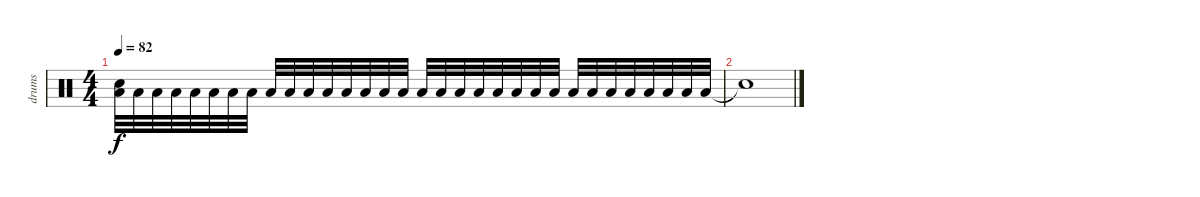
\track ("drums" "drums") {instrument percussion}
\staff {score}
\articulation defaults
\ts (4 4)
\tempo 82
\clef neutral
\ks c
("Snare (hit)"{t} "Low Tom (hit)").32{dy f volume 2} "Low Tom (hit)".32 "Low Tom (hit)".32 "Low Tom (hit)".32 "Low Tom (hit)".32 "Low Tom (hit)".32 "Low Tom (hit)".32 "Low Tom (hit)".32 "Low Tom (hit)".32 "Low Tom (hit)".32 "Low Tom (hit)".32 "Low Tom (hit)".32 "Low Tom (hit)".32 "Low Tom (hit)".32 "Low Tom (hit)".32 "Low Tom (hit)".32 "Low Tom (hit)".32 "Low Tom (hit)".32 "Low Tom (hit)".32 "Low Tom (hit)".32 "Low Tom (hit)".32 "Low Tom (hit)".32 "Low Tom (hit)".32 "Low Tom (hit)".32 "Low Tom (hit)".32 "Low Tom (hit)".32 "Low Tom (hit)".32 "Low Tom (hit)".32 "Low Tom (hit)".32 "Low Tom (hit)".32 "Low Tom (hit)".32 "Low Tom (hit)".32 |
"Snare (hit)"{t}.1
